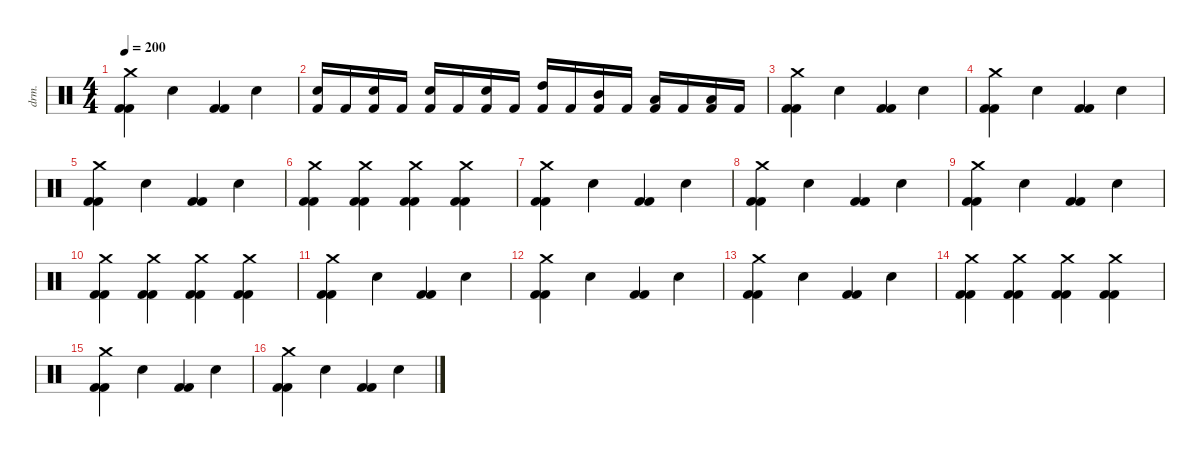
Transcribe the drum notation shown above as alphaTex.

\defaultSystemsLayout 4
\hideDynamics
\bracketExtendMode nobrackets
\track ("Perkusja" "drm.") {instrument percussion}
\staff {score}
\articulation defaults
\ts (4 4)
\tempo 200
\clef neutral
\ks c
("Crash medium (hit)" "Kick (hit) 2" "Kick (hit) 2").4{dy f} "Snare (hit) 2".4 ("Kick (hit) 2" "Kick (hit) 2").4 "Snare (hit) 2".4 |
("Snare (hit) 2" "Kick (hit) 2").16 "Kick (hit) 2".16 ("Snare (hit) 2" "Kick (hit) 2").16 "Kick (hit) 2".16 ("Snare (hit) 2" "Kick (hit) 2").16 "Kick (hit) 2".16 ("Snare (hit) 2" "Kick (hit) 2").16 "Kick (hit) 2".16 ("High Tom (hit)" "Kick (hit) 2").16 "Kick (hit) 2".16 ("Mid Tom (hit)" "Kick (hit) 2").16 "Kick (hit) 2".16 ("Low Tom (hit)" "Kick (hit) 2").16 "Kick (hit) 2".16 ("Low Floor Tom (hit)" "Kick (hit) 2").16 "Kick (hit) 2".16 |
("Crash medium (hit)" "Kick (hit) 2" "Kick (hit) 2").4 "Snare (hit) 2".4 ("Kick (hit) 2" "Kick (hit) 2").4 "Snare (hit) 2".4 |
("Crash medium (hit)" "Kick (hit) 2" "Kick (hit) 2").4 "Snare (hit) 2".4 ("Kick (hit) 2" "Kick (hit) 2").4 "Snare (hit) 2".4 |
("Crash medium (hit)" "Kick (hit) 2" "Kick (hit) 2").4 "Snare (hit) 2".4 ("Kick (hit) 2" "Kick (hit) 2").4 "Snare (hit) 2".4 |
("Crash medium (hit)" "Kick (hit) 2" "Kick (hit) 2").4 ("Crash medium (hit)" "Kick (hit) 2" "Kick (hit) 2").4 ("Crash medium (hit)" "Kick (hit) 2" "Kick (hit) 2").4 ("Crash medium (hit)" "Kick (hit) 2" "Kick (hit) 2").4 |
("Crash medium (hit)" "Kick (hit) 2" "Kick (hit) 2").4 "Snare (hit) 2".4 ("Kick (hit) 2" "Kick (hit) 2").4 "Snare (hit) 2".4 |
("Crash medium (hit)" "Kick (hit) 2" "Kick (hit) 2").4 "Snare (hit) 2".4 ("Kick (hit) 2" "Kick (hit) 2").4 "Snare (hit) 2".4 |
("Crash medium (hit)" "Kick (hit) 2" "Kick (hit) 2").4 "Snare (hit) 2".4 ("Kick (hit) 2" "Kick (hit) 2").4 "Snare (hit) 2".4 |
("Crash medium (hit)" "Kick (hit) 2" "Kick (hit) 2").4 ("Crash medium (hit)" "Kick (hit) 2" "Kick (hit) 2").4 ("Crash medium (hit)" "Kick (hit) 2" "Kick (hit) 2").4 ("Crash medium (hit)" "Kick (hit) 2" "Kick (hit) 2").4 |
("Crash medium (hit)" "Kick (hit) 2" "Kick (hit) 2").4 "Snare (hit) 2".4 ("Kick (hit) 2" "Kick (hit) 2").4 "Snare (hit) 2".4 |
("Crash medium (hit)" "Kick (hit) 2" "Kick (hit) 2").4 "Snare (hit) 2".4 ("Kick (hit) 2" "Kick (hit) 2").4 "Snare (hit) 2".4 |
("Crash medium (hit)" "Kick (hit) 2" "Kick (hit) 2").4 "Snare (hit) 2".4 ("Kick (hit) 2" "Kick (hit) 2").4 "Snare (hit) 2".4 |
("Crash medium (hit)" "Kick (hit) 2" "Kick (hit) 2").4 ("Crash medium (hit)" "Kick (hit) 2" "Kick (hit) 2").4 ("Crash medium (hit)" "Kick (hit) 2" "Kick (hit) 2").4 ("Crash medium (hit)" "Kick (hit) 2" "Kick (hit) 2").4 |
("Crash medium (hit)" "Kick (hit) 2" "Kick (hit) 2").4 "Snare (hit) 2".4 ("Kick (hit) 2" "Kick (hit) 2").4 "Snare (hit) 2".4 |
("Crash medium (hit)" "Kick (hit) 2" "Kick (hit) 2").4 "Snare (hit) 2".4 ("Kick (hit) 2" "Kick (hit) 2").4 "Snare (hit) 2".4
